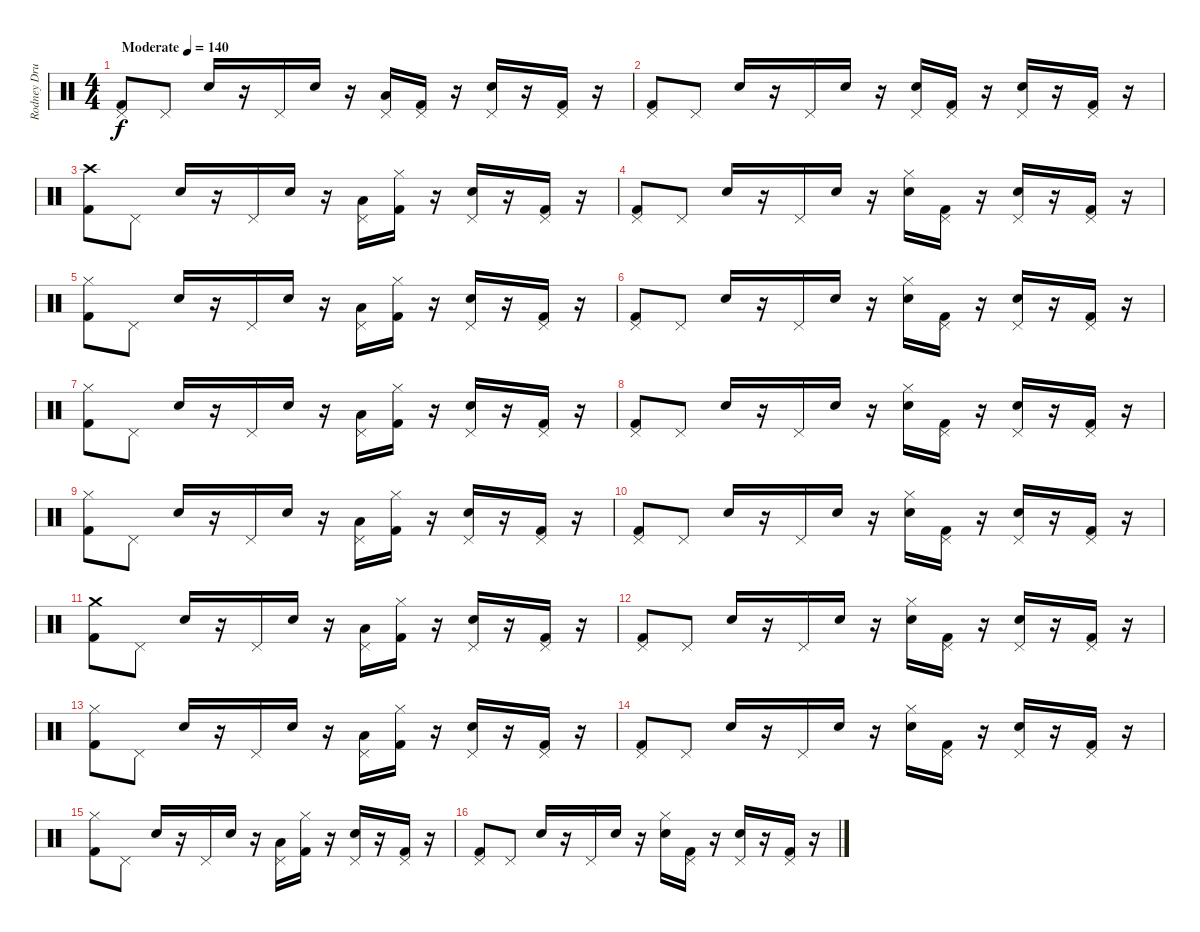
\track ("Rodney Drums" "Rodney Dru") {instrument percussion}
\staff {score}
\articulation defaults
\ts (4 4)
\tempo (140 "Moderate")
\clef neutral
\ks c
("Pedal Hi-Hat (hit)" "Kick (hit) 2").8{dy f} "Pedal Hi-Hat (hit)".8 "Electric Snare (hit)".16 r.16 "Pedal Hi-Hat (hit)".16 "Electric Snare (hit)".16 r.16 ("Pedal Hi-Hat (hit)" "Low Tom (hit)").16 ("Pedal Hi-Hat (hit)" "Kick (hit) 2").16 r.16 ("Pedal Hi-Hat (hit)" "Electric Snare (hit)").16 r.16 ("Pedal Hi-Hat (hit)" "Kick (hit) 2").16 r.16 |
("Pedal Hi-Hat (hit)" "Kick (hit) 2").8 "Pedal Hi-Hat (hit)".8 "Electric Snare (hit)".16 r.16 "Pedal Hi-Hat (hit)".16 "Electric Snare (hit)".16 r.16 ("Pedal Hi-Hat (hit)" "Electric Snare (hit)").16 ("Pedal Hi-Hat (hit)" "Kick (hit) 2").16 r.16 ("Pedal Hi-Hat (hit)" "Electric Snare (hit)").16 r.16 ("Pedal Hi-Hat (hit)" "Kick (hit) 2").16 r.16 |
("Crash high (hit)" "Kick (hit) 2").8 "Pedal Hi-Hat (hit)".8 "Electric Snare (hit)".16 r.16 "Pedal Hi-Hat (hit)".16 "Electric Snare (hit)".16 r.16 ("Pedal Hi-Hat (hit)" "Low Tom (hit)").16 ("Hi-Hat (closed)" "Kick (hit) 2").16 r.16 ("Pedal Hi-Hat (hit)" "Electric Snare (hit)").16 r.16 ("Pedal Hi-Hat (hit)" "Kick (hit) 2").16 r.16 |
("Pedal Hi-Hat (hit)" "Kick (hit) 2").8 "Pedal Hi-Hat (hit)".8 "Electric Snare (hit)".16 r.16 "Pedal Hi-Hat (hit)".16 "Electric Snare (hit)".16 r.16 ("Hi-Hat (closed)" "Electric Snare (hit)").16 ("Pedal Hi-Hat (hit)" "Kick (hit) 2").16 r.16 ("Pedal Hi-Hat (hit)" "Electric Snare (hit)").16 r.16 ("Pedal Hi-Hat (hit)" "Kick (hit) 2").16 r.16 |
("Hi-Hat (closed)" "Kick (hit) 2").8 "Pedal Hi-Hat (hit)".8 "Electric Snare (hit)".16 r.16 "Pedal Hi-Hat (hit)".16 "Electric Snare (hit)".16 r.16 ("Pedal Hi-Hat (hit)" "Low Tom (hit)").16 ("Hi-Hat (closed)" "Kick (hit) 2").16 r.16 ("Pedal Hi-Hat (hit)" "Electric Snare (hit)").16 r.16 ("Pedal Hi-Hat (hit)" "Kick (hit) 2").16 r.16 |
("Pedal Hi-Hat (hit)" "Kick (hit) 2").8 "Pedal Hi-Hat (hit)".8 "Electric Snare (hit)".16 r.16 "Pedal Hi-Hat (hit)".16 "Electric Snare (hit)".16 r.16 ("Hi-Hat (closed)" "Electric Snare (hit)").16 ("Pedal Hi-Hat (hit)" "Kick (hit) 2").16 r.16 ("Pedal Hi-Hat (hit)" "Electric Snare (hit)").16 r.16 ("Pedal Hi-Hat (hit)" "Kick (hit) 2").16 r.16 |
("Hi-Hat (closed)" "Kick (hit) 2").8 "Pedal Hi-Hat (hit)".8 "Electric Snare (hit)".16 r.16 "Pedal Hi-Hat (hit)".16 "Electric Snare (hit)".16 r.16 ("Pedal Hi-Hat (hit)" "Low Tom (hit)").16 ("Hi-Hat (closed)" "Kick (hit) 2").16 r.16 ("Pedal Hi-Hat (hit)" "Electric Snare (hit)").16 r.16 ("Pedal Hi-Hat (hit)" "Kick (hit) 2").16 r.16 |
("Pedal Hi-Hat (hit)" "Kick (hit) 2").8 "Pedal Hi-Hat (hit)".8 "Electric Snare (hit)".16 r.16 "Pedal Hi-Hat (hit)".16 "Electric Snare (hit)".16 r.16 ("Hi-Hat (closed)" "Electric Snare (hit)").16 ("Pedal Hi-Hat (hit)" "Kick (hit) 2").16 r.16 ("Pedal Hi-Hat (hit)" "Electric Snare (hit)").16 r.16 ("Pedal Hi-Hat (hit)" "Kick (hit) 2").16 r.16 |
("Hi-Hat (closed)" "Kick (hit) 2").8 "Pedal Hi-Hat (hit)".8 "Electric Snare (hit)".16 r.16 "Pedal Hi-Hat (hit)".16 "Electric Snare (hit)".16 r.16 ("Pedal Hi-Hat (hit)" "Low Tom (hit)").16 ("Hi-Hat (closed)" "Kick (hit) 2").16 r.16 ("Pedal Hi-Hat (hit)" "Electric Snare (hit)").16 r.16 ("Pedal Hi-Hat (hit)" "Kick (hit) 2").16 r.16 |
("Pedal Hi-Hat (hit)" "Kick (hit) 2").8 "Pedal Hi-Hat (hit)".8 "Electric Snare (hit)".16 r.16 "Pedal Hi-Hat (hit)".16 "Electric Snare (hit)".16 r.16 ("Hi-Hat (closed)" "Electric Snare (hit)").16 ("Pedal Hi-Hat (hit)" "Kick (hit) 2").16 r.16 ("Pedal Hi-Hat (hit)" "Electric Snare (hit)").16 r.16 ("Pedal Hi-Hat (hit)" "Kick (hit) 2").16 r.16 |
("Crash medium (hit)" "Kick (hit) 2").8 "Pedal Hi-Hat (hit)".8 "Electric Snare (hit)".16 r.16 "Pedal Hi-Hat (hit)".16 "Electric Snare (hit)".16 r.16 ("Pedal Hi-Hat (hit)" "Low Tom (hit)").16 ("Hi-Hat (closed)" "Kick (hit) 2").16 r.16 ("Pedal Hi-Hat (hit)" "Electric Snare (hit)").16 r.16 ("Pedal Hi-Hat (hit)" "Kick (hit) 2").16 r.16 |
("Pedal Hi-Hat (hit)" "Kick (hit) 2").8 "Pedal Hi-Hat (hit)".8 "Electric Snare (hit)".16 r.16 "Pedal Hi-Hat (hit)".16 "Electric Snare (hit)".16 r.16 ("Hi-Hat (closed)" "Electric Snare (hit)").16 ("Pedal Hi-Hat (hit)" "Kick (hit) 2").16 r.16 ("Pedal Hi-Hat (hit)" "Electric Snare (hit)").16 r.16 ("Pedal Hi-Hat (hit)" "Kick (hit) 2").16 r.16 |
("Hi-Hat (closed)" "Kick (hit) 2").8 "Pedal Hi-Hat (hit)".8 "Electric Snare (hit)".16 r.16 "Pedal Hi-Hat (hit)".16 "Electric Snare (hit)".16 r.16 ("Pedal Hi-Hat (hit)" "Low Tom (hit)").16 ("Hi-Hat (closed)" "Kick (hit) 2").16 r.16 ("Pedal Hi-Hat (hit)" "Electric Snare (hit)").16 r.16 ("Pedal Hi-Hat (hit)" "Kick (hit) 2").16 r.16 |
("Pedal Hi-Hat (hit)" "Kick (hit) 2").8 "Pedal Hi-Hat (hit)".8 "Electric Snare (hit)".16 r.16 "Pedal Hi-Hat (hit)".16 "Electric Snare (hit)".16 r.16 ("Hi-Hat (closed)" "Electric Snare (hit)").16 ("Pedal Hi-Hat (hit)" "Kick (hit) 2").16 r.16 ("Pedal Hi-Hat (hit)" "Electric Snare (hit)").16 r.16 ("Pedal Hi-Hat (hit)" "Kick (hit) 2").16 r.16 |
("Hi-Hat (closed)" "Kick (hit) 2").8 "Pedal Hi-Hat (hit)".8 "Electric Snare (hit)".16 r.16 "Pedal Hi-Hat (hit)".16 "Electric Snare (hit)".16 r.16 ("Pedal Hi-Hat (hit)" "Low Tom (hit)").16 ("Hi-Hat (closed)" "Kick (hit) 2").16 r.16 ("Pedal Hi-Hat (hit)" "Electric Snare (hit)").16 r.16 ("Pedal Hi-Hat (hit)" "Kick (hit) 2").16 r.16 |
("Pedal Hi-Hat (hit)" "Kick (hit) 2").8 "Pedal Hi-Hat (hit)".8 "Electric Snare (hit)".16 r.16 "Pedal Hi-Hat (hit)".16 "Electric Snare (hit)".16 r.16 ("Hi-Hat (closed)" "Electric Snare (hit)").16 ("Pedal Hi-Hat (hit)" "Kick (hit) 2").16 r.16 ("Pedal Hi-Hat (hit)" "Electric Snare (hit)").16 r.16 ("Pedal Hi-Hat (hit)" "Kick (hit) 2").16 r.16
